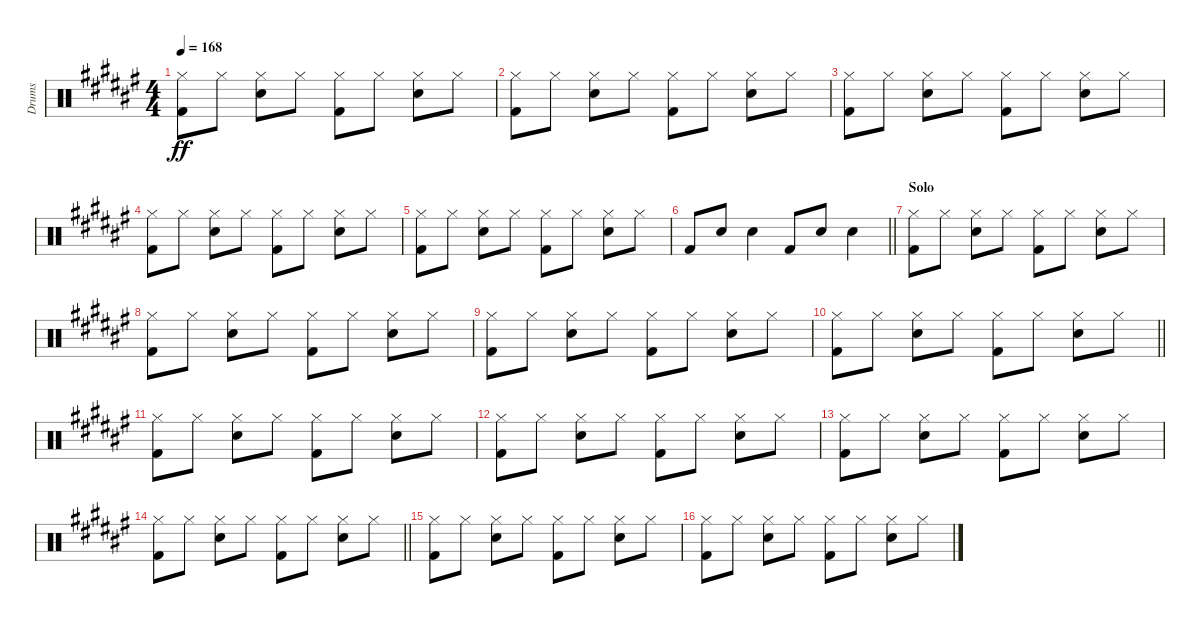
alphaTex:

\track ("Drums" "Drums") {instrument percussion}
\staff {score}
\articulation defaults
\ts (4 4)
\tempo 168
\clef neutral
\ks f#
("Hi-Hat (closed)" "Kick (hit) 2").8{dy ff} "Hi-Hat (closed)".8 ("Hi-Hat (closed)" "Snare (hit) 2").8 "Hi-Hat (closed)".8 ("Hi-Hat (closed)" "Kick (hit) 2").8 "Hi-Hat (closed)".8 ("Hi-Hat (closed)" "Snare (hit) 2").8 "Hi-Hat (closed)".8 |
("Hi-Hat (closed)" "Kick (hit) 2").8 "Hi-Hat (closed)".8 ("Hi-Hat (closed)" "Snare (hit) 2").8 "Hi-Hat (closed)".8 ("Hi-Hat (closed)" "Kick (hit) 2").8 "Hi-Hat (closed)".8 ("Hi-Hat (closed)" "Snare (hit) 2").8 "Hi-Hat (closed)".8 |
("Hi-Hat (closed)" "Kick (hit) 2").8 "Hi-Hat (closed)".8 ("Hi-Hat (closed)" "Snare (hit) 2").8 "Hi-Hat (closed)".8 ("Hi-Hat (closed)" "Kick (hit) 2").8 "Hi-Hat (closed)".8 ("Hi-Hat (closed)" "Snare (hit) 2").8 "Hi-Hat (closed)".8 |
("Hi-Hat (closed)" "Kick (hit) 2").8 "Hi-Hat (closed)".8 ("Hi-Hat (closed)" "Snare (hit) 2").8 "Hi-Hat (closed)".8 ("Hi-Hat (closed)" "Kick (hit) 2").8 "Hi-Hat (closed)".8 ("Hi-Hat (closed)" "Snare (hit) 2").8 "Hi-Hat (closed)".8 |
("Hi-Hat (closed)" "Kick (hit) 2").8 "Hi-Hat (closed)".8 ("Hi-Hat (closed)" "Snare (hit) 2").8 "Hi-Hat (closed)".8 ("Hi-Hat (closed)" "Kick (hit) 2").8 "Hi-Hat (closed)".8 ("Hi-Hat (closed)" "Snare (hit) 2").8 "Hi-Hat (closed)".8 |
\barLineRight lightlight "Kick (hit) 2".8 "Snare (hit) 2".8 "Snare (hit) 2".4 "Kick (hit) 2".8 "Snare (hit) 2".8 "Snare (hit) 2".4
|
\section ("" "Solo")
("Hi-Hat (closed)" "Kick (hit) 2").8 "Hi-Hat (closed)".8 ("Hi-Hat (closed)" "Snare (hit) 2").8 "Hi-Hat (closed)".8 ("Hi-Hat (closed)" "Kick (hit) 2").8 "Hi-Hat (closed)".8 ("Hi-Hat (closed)" "Snare (hit) 2").8 "Hi-Hat (closed)".8 |
("Hi-Hat (closed)" "Kick (hit) 2").8 "Hi-Hat (closed)".8 ("Hi-Hat (closed)" "Snare (hit) 2").8 "Hi-Hat (closed)".8 ("Hi-Hat (closed)" "Kick (hit) 2").8 "Hi-Hat (closed)".8 ("Hi-Hat (closed)" "Snare (hit) 2").8 "Hi-Hat (closed)".8 |
("Hi-Hat (closed)" "Kick (hit) 2").8 "Hi-Hat (closed)".8 ("Hi-Hat (closed)" "Snare (hit) 2").8 "Hi-Hat (closed)".8 ("Hi-Hat (closed)" "Kick (hit) 2").8 "Hi-Hat (closed)".8 ("Hi-Hat (closed)" "Snare (hit) 2").8 "Hi-Hat (closed)".8 |
\barLineRight lightlight
("Hi-Hat (closed)" "Kick (hit) 2").8 "Hi-Hat (closed)".8 ("Hi-Hat (closed)" "Snare (hit) 2").8 "Hi-Hat (closed)".8 ("Hi-Hat (closed)" "Kick (hit) 2").8 "Hi-Hat (closed)".8 ("Hi-Hat (closed)" "Snare (hit) 2").8 "Hi-Hat (closed)".8 |
("Hi-Hat (closed)" "Kick (hit) 2").8 "Hi-Hat (closed)".8 ("Hi-Hat (closed)" "Snare (hit) 2").8 "Hi-Hat (closed)".8 ("Hi-Hat (closed)" "Kick (hit) 2").8 "Hi-Hat (closed)".8 ("Hi-Hat (closed)" "Snare (hit) 2").8 "Hi-Hat (closed)".8 |
("Hi-Hat (closed)" "Kick (hit) 2").8 "Hi-Hat (closed)".8 ("Hi-Hat (closed)" "Snare (hit) 2").8 "Hi-Hat (closed)".8 ("Hi-Hat (closed)" "Kick (hit) 2").8 "Hi-Hat (closed)".8 ("Hi-Hat (closed)" "Snare (hit) 2").8 "Hi-Hat (closed)".8 |
("Hi-Hat (closed)" "Kick (hit) 2").8 "Hi-Hat (closed)".8 ("Hi-Hat (closed)" "Snare (hit) 2").8 "Hi-Hat (closed)".8 ("Hi-Hat (closed)" "Kick (hit) 2").8 "Hi-Hat (closed)".8 ("Hi-Hat (closed)" "Snare (hit) 2").8 "Hi-Hat (closed)".8 |
\barLineRight lightlight
("Hi-Hat (closed)" "Kick (hit) 2").8 "Hi-Hat (closed)".8 ("Hi-Hat (closed)" "Snare (hit) 2").8 "Hi-Hat (closed)".8 ("Hi-Hat (closed)" "Kick (hit) 2").8 "Hi-Hat (closed)".8 ("Hi-Hat (closed)" "Snare (hit) 2").8 "Hi-Hat (closed)".8 |
("Hi-Hat (closed)" "Kick (hit) 2").8 "Hi-Hat (closed)".8 ("Hi-Hat (closed)" "Snare (hit) 2").8 "Hi-Hat (closed)".8 ("Hi-Hat (closed)" "Kick (hit) 2").8 "Hi-Hat (closed)".8 ("Hi-Hat (closed)" "Snare (hit) 2").8 "Hi-Hat (closed)".8 |
("Hi-Hat (closed)" "Kick (hit) 2").8 "Hi-Hat (closed)".8 ("Hi-Hat (closed)" "Snare (hit) 2").8 "Hi-Hat (closed)".8 ("Hi-Hat (closed)" "Kick (hit) 2").8 "Hi-Hat (closed)".8 ("Hi-Hat (closed)" "Snare (hit) 2").8 "Hi-Hat (closed)".8
